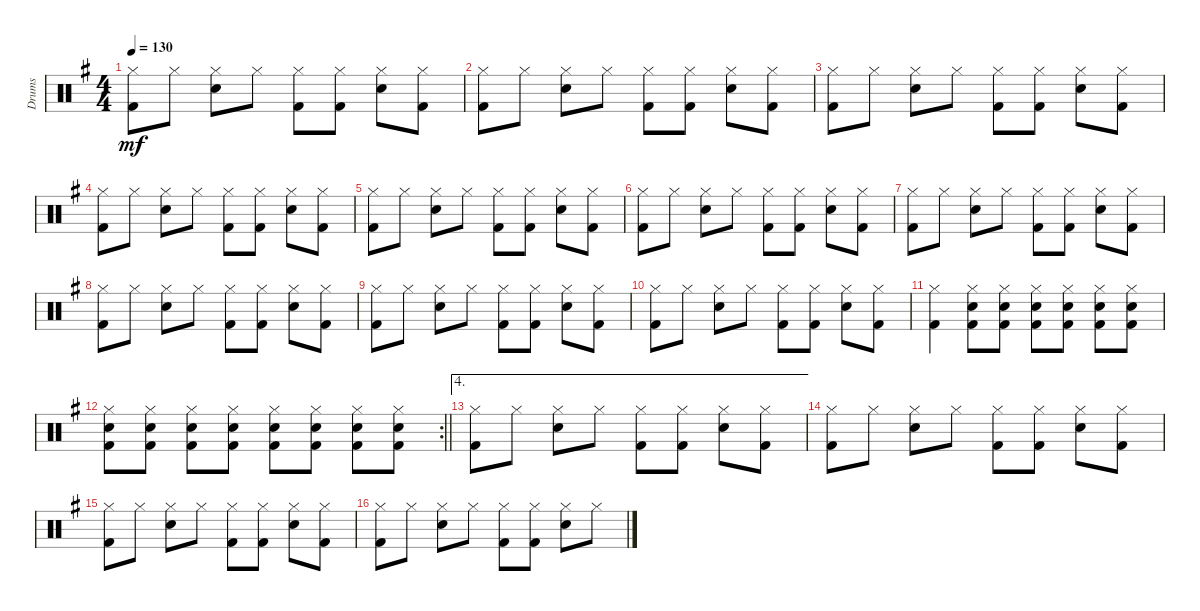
\track ("Drums" "Drums") {instrument percussion}
\staff {score}
\articulation defaults
\ts (4 4)
\tempo 130
\clef neutral
\ks g
("Hi-Hat (closed)" "Kick (hit) 2").8{dy mf} "Hi-Hat (closed)".8 ("Hi-Hat (closed)" "Snare (hit) 2").8 "Hi-Hat (closed)".8 ("Hi-Hat (closed)" "Kick (hit) 2").8 ("Hi-Hat (closed)" "Kick (hit) 2").8 ("Hi-Hat (closed)" "Snare (hit) 2").8 ("Hi-Hat (closed)" "Kick (hit) 2").8 |
("Hi-Hat (closed)" "Kick (hit) 2").8 "Hi-Hat (closed)".8 ("Hi-Hat (closed)" "Snare (hit) 2").8 "Hi-Hat (closed)".8 ("Hi-Hat (closed)" "Kick (hit) 2").8 ("Hi-Hat (closed)" "Kick (hit) 2").8 ("Hi-Hat (closed)" "Snare (hit) 2").8 ("Hi-Hat (closed)" "Kick (hit) 2").8 |
("Hi-Hat (closed)" "Kick (hit) 2").8 "Hi-Hat (closed)".8 ("Hi-Hat (closed)" "Snare (hit) 2").8 "Hi-Hat (closed)".8 ("Hi-Hat (closed)" "Kick (hit) 2").8 ("Hi-Hat (closed)" "Kick (hit) 2").8 ("Hi-Hat (closed)" "Snare (hit) 2").8 ("Hi-Hat (closed)" "Kick (hit) 2").8 |
("Hi-Hat (closed)" "Kick (hit) 2").8 "Hi-Hat (closed)".8 ("Hi-Hat (closed)" "Snare (hit) 2").8 "Hi-Hat (closed)".8 ("Hi-Hat (closed)" "Kick (hit) 2").8 ("Hi-Hat (closed)" "Kick (hit) 2").8 ("Hi-Hat (closed)" "Snare (hit) 2").8 ("Hi-Hat (closed)" "Kick (hit) 2").8 |
("Hi-Hat (closed)" "Kick (hit) 2").8 "Hi-Hat (closed)".8 ("Hi-Hat (closed)" "Snare (hit) 2").8 "Hi-Hat (closed)".8 ("Hi-Hat (closed)" "Kick (hit) 2").8 ("Hi-Hat (closed)" "Kick (hit) 2").8 ("Hi-Hat (closed)" "Snare (hit) 2").8 ("Hi-Hat (closed)" "Kick (hit) 2").8 |
("Hi-Hat (closed)" "Kick (hit) 2").8 "Hi-Hat (closed)".8 ("Hi-Hat (closed)" "Snare (hit) 2").8 "Hi-Hat (closed)".8 ("Hi-Hat (closed)" "Kick (hit) 2").8 ("Hi-Hat (closed)" "Kick (hit) 2").8 ("Hi-Hat (closed)" "Snare (hit) 2").8 ("Hi-Hat (closed)" "Kick (hit) 2").8 |
("Hi-Hat (closed)" "Kick (hit) 2").8 "Hi-Hat (closed)".8 ("Hi-Hat (closed)" "Snare (hit) 2").8 "Hi-Hat (closed)".8 ("Hi-Hat (closed)" "Kick (hit) 2").8 ("Hi-Hat (closed)" "Kick (hit) 2").8 ("Hi-Hat (closed)" "Snare (hit) 2").8 ("Hi-Hat (closed)" "Kick (hit) 2").8 |
("Hi-Hat (closed)" "Kick (hit) 2").8 "Hi-Hat (closed)".8 ("Hi-Hat (closed)" "Snare (hit) 2").8 "Hi-Hat (closed)".8 ("Hi-Hat (closed)" "Kick (hit) 2").8 ("Hi-Hat (closed)" "Kick (hit) 2").8 ("Hi-Hat (closed)" "Snare (hit) 2").8 ("Hi-Hat (closed)" "Kick (hit) 2").8 |
("Hi-Hat (closed)" "Kick (hit) 2").8 "Hi-Hat (closed)".8 ("Hi-Hat (closed)" "Snare (hit) 2").8 "Hi-Hat (closed)".8 ("Hi-Hat (closed)" "Kick (hit) 2").8 ("Hi-Hat (closed)" "Kick (hit) 2").8 ("Hi-Hat (closed)" "Snare (hit) 2").8 ("Hi-Hat (closed)" "Kick (hit) 2").8 |
("Hi-Hat (closed)" "Kick (hit) 2").8 "Hi-Hat (closed)".8 ("Hi-Hat (closed)" "Snare (hit) 2").8 "Hi-Hat (closed)".8 ("Hi-Hat (closed)" "Kick (hit) 2").8 ("Hi-Hat (closed)" "Kick (hit) 2").8 ("Hi-Hat (closed)" "Snare (hit) 2").8 ("Hi-Hat (closed)" "Kick (hit) 2").8 |
("Hi-Hat (closed)" "Kick (hit) 2").4 ("Hi-Hat (closed)" "Snare (hit) 2" "Kick (hit) 2").8 ("Hi-Hat (closed)" "Snare (hit) 2" "Kick (hit) 2").8 ("Hi-Hat (closed)" "Snare (hit) 2" "Kick (hit) 2").8 ("Hi-Hat (closed)" "Snare (hit) 2" "Kick (hit) 2").8 ("Hi-Hat (closed)" "Snare (hit) 2" "Kick (hit) 2").8 ("Hi-Hat (closed)" "Snare (hit) 2" "Kick (hit) 2").8 |
\rc 2
\barLineRight lightlight
("Hi-Hat (closed)" "Snare (hit) 2" "Kick (hit) 2").8 ("Hi-Hat (closed)" "Snare (hit) 2" "Kick (hit) 2").8 ("Hi-Hat (closed)" "Snare (hit) 2" "Kick (hit) 2").8 ("Hi-Hat (closed)" "Snare (hit) 2" "Kick (hit) 2").8 ("Hi-Hat (closed)" "Snare (hit) 2" "Kick (hit) 2").8 ("Hi-Hat (closed)" "Snare (hit) 2" "Kick (hit) 2").8 ("Hi-Hat (closed)" "Snare (hit) 2" "Kick (hit) 2").8 ("Hi-Hat (closed)" "Snare (hit) 2" "Kick (hit) 2").8 |
\ae 4
("Hi-Hat (closed)" "Kick (hit) 2").8 "Hi-Hat (closed)".8 ("Hi-Hat (closed)" "Snare (hit) 2").8 "Hi-Hat (closed)".8 ("Hi-Hat (closed)" "Kick (hit) 2").8 ("Hi-Hat (closed)" "Kick (hit) 2").8 ("Hi-Hat (closed)" "Snare (hit) 2").8 ("Hi-Hat (closed)" "Kick (hit) 2").8 |
("Hi-Hat (closed)" "Kick (hit) 2").8 "Hi-Hat (closed)".8 ("Hi-Hat (closed)" "Snare (hit) 2").8 "Hi-Hat (closed)".8 ("Hi-Hat (closed)" "Kick (hit) 2").8 ("Hi-Hat (closed)" "Kick (hit) 2").8 ("Hi-Hat (closed)" "Snare (hit) 2").8 ("Hi-Hat (closed)" "Kick (hit) 2").8 |
("Hi-Hat (closed)" "Kick (hit) 2").8 "Hi-Hat (closed)".8 ("Hi-Hat (closed)" "Snare (hit) 2").8 "Hi-Hat (closed)".8 ("Hi-Hat (closed)" "Kick (hit) 2").8 ("Hi-Hat (closed)" "Kick (hit) 2").8 ("Hi-Hat (closed)" "Snare (hit) 2").8 ("Hi-Hat (closed)" "Kick (hit) 2").8 |
("Hi-Hat (closed)" "Kick (hit) 2").8 "Hi-Hat (closed)".8 ("Hi-Hat (closed)" "Snare (hit) 2").8 "Hi-Hat (closed)".8 ("Hi-Hat (closed)" "Kick (hit) 2").8 ("Hi-Hat (closed)" "Kick (hit) 2").8 ("Hi-Hat (closed)" "Snare (hit) 2").8 "Hi-Hat (closed)".8
